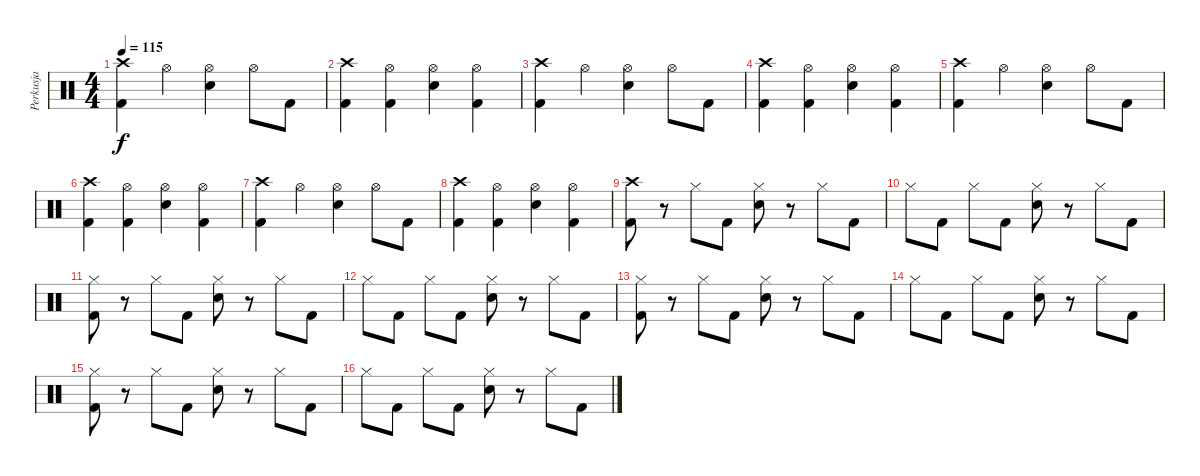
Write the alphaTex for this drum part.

\track ("Perkusja" "Perkusja") {instrument percussion}
\staff {score}
\articulation defaults
\ts (4 4)
\tempo 115
\clef neutral
\ks c
("Crash high (hit)" "Kick (hit) 2").4{dy f} "Hi-Hat (open)".4 ("Hi-Hat (open)" "Electric Snare (hit)").4 "Hi-Hat (open)".8 "Kick (hit) 2".8 |
("Crash high (hit)" "Kick (hit) 2").4 ("Hi-Hat (open)" "Kick (hit) 2").4 ("Hi-Hat (open)" "Electric Snare (hit)").4 ("Hi-Hat (open)" "Kick (hit) 2").4 |
("Crash high (hit)" "Kick (hit) 2").4 "Hi-Hat (open)".4 ("Hi-Hat (open)" "Electric Snare (hit)").4 "Hi-Hat (open)".8 "Kick (hit) 2".8 |
("Crash high (hit)" "Kick (hit) 2").4 ("Hi-Hat (open)" "Kick (hit) 2").4 ("Hi-Hat (open)" "Electric Snare (hit)").4 ("Hi-Hat (open)" "Kick (hit) 2").4 |
("Crash high (hit)" "Kick (hit) 2").4 "Hi-Hat (open)".4 ("Hi-Hat (open)" "Electric Snare (hit)").4 "Hi-Hat (open)".8 "Kick (hit) 2".8 |
("Crash high (hit)" "Kick (hit) 2").4 ("Hi-Hat (open)" "Kick (hit) 2").4 ("Hi-Hat (open)" "Electric Snare (hit)").4 ("Hi-Hat (open)" "Kick (hit) 2").4 |
("Crash high (hit)" "Kick (hit) 2").4 "Hi-Hat (open)".4 ("Hi-Hat (open)" "Electric Snare (hit)").4 "Hi-Hat (open)".8 "Kick (hit) 2".8 |
("Crash high (hit)" "Kick (hit) 2").4 ("Hi-Hat (open)" "Kick (hit) 2").4 ("Hi-Hat (open)" "Electric Snare (hit)").4 ("Hi-Hat (open)" "Kick (hit) 2").4 |
("Crash high (hit)" "Kick (hit) 2").8 r.8 "Hi-Hat (closed)".8 "Kick (hit) 2".8 ("Hi-Hat (closed)" "Electric Snare (hit)").8 r.8 "Hi-Hat (closed)".8 "Kick (hit) 2".8 |
"Hi-Hat (closed)".8 "Kick (hit) 2".8 "Hi-Hat (closed)".8 "Kick (hit) 2".8 ("Hi-Hat (closed)" "Electric Snare (hit)").8 r.8 "Hi-Hat (closed)".8 "Kick (hit) 2".8 |
("Hi-Hat (closed)" "Kick (hit) 2").8 r.8 "Hi-Hat (closed)".8 "Kick (hit) 2".8 ("Hi-Hat (closed)" "Electric Snare (hit)").8 r.8 "Hi-Hat (closed)".8 "Kick (hit) 2".8 |
"Hi-Hat (closed)".8 "Kick (hit) 2".8 "Hi-Hat (closed)".8 "Kick (hit) 2".8 ("Hi-Hat (closed)" "Electric Snare (hit)").8 r.8 "Hi-Hat (closed)".8 "Kick (hit) 2".8 |
("Hi-Hat (closed)" "Kick (hit) 2").8 r.8 "Hi-Hat (closed)".8 "Kick (hit) 2".8 ("Hi-Hat (closed)" "Electric Snare (hit)").8 r.8 "Hi-Hat (closed)".8 "Kick (hit) 2".8 |
"Hi-Hat (closed)".8 "Kick (hit) 2".8 "Hi-Hat (closed)".8 "Kick (hit) 2".8 ("Hi-Hat (closed)" "Electric Snare (hit)").8 r.8 "Hi-Hat (closed)".8 "Kick (hit) 2".8 |
("Hi-Hat (closed)" "Kick (hit) 2").8 r.8 "Hi-Hat (closed)".8 "Kick (hit) 2".8 ("Hi-Hat (closed)" "Electric Snare (hit)").8 r.8 "Hi-Hat (closed)".8 "Kick (hit) 2".8 |
"Hi-Hat (closed)".8 "Kick (hit) 2".8 "Hi-Hat (closed)".8 "Kick (hit) 2".8 ("Hi-Hat (closed)" "Electric Snare (hit)").8 r.8 "Hi-Hat (closed)".8 "Kick (hit) 2".8
